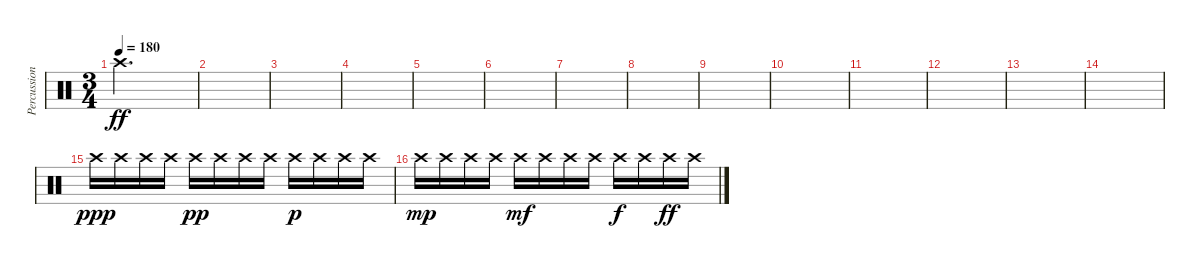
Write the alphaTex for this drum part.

\track ("Percussion" "Percussion") {instrument percussion}
\staff {score}
\articulation defaults
\ts (3 4)
\tempo 180
\clef neutral
\ks c "Crash high (hit)".2{d dy ff}
|
|
|
|
|
|
|
|
|
|
|
|
|
|
"Crash high (hit)".16{dy ppp} "Crash high (hit)".16 "Crash high (hit)".16 "Crash high (hit)".16 "Crash high (hit)".16{dy pp} "Crash high (hit)".16 "Crash high (hit)".16 "Crash high (hit)".16 "Crash high (hit)".16{dy p} "Crash high (hit)".16 "Crash high (hit)".16 "Crash high (hit)".16 |
"Crash high (hit)".16{dy mp} "Crash high (hit)".16 "Crash high (hit)".16 "Crash high (hit)".16 "Crash high (hit)".16{dy mf} "Crash high (hit)".16 "Crash high (hit)".16 "Crash high (hit)".16 "Crash high (hit)".16{dy f} "Crash high (hit)".16 "Crash high (hit)".16{dy ff} "Crash high (hit)".16
